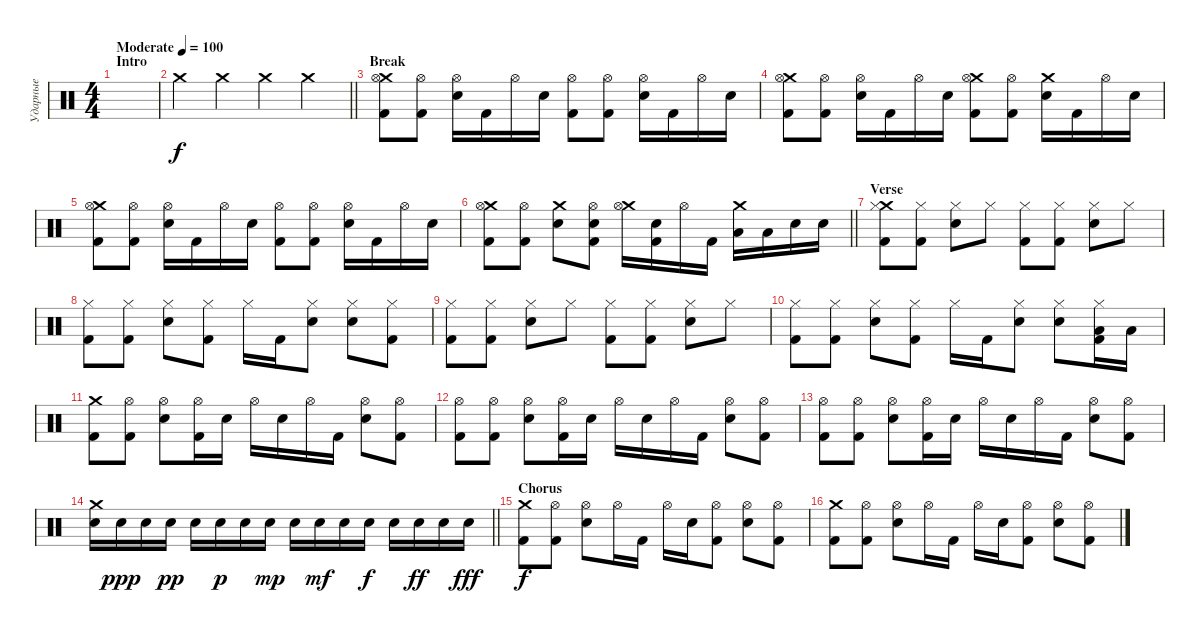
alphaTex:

\track ("Ударные" "Ударные") {instrument percussion}
\staff
\articulation defaults
\ts (4 4)
\section ("" "Intro")
\tempo (100 "Moderate")
\clef neutral
\ks c
|
\barLineRight lightlight "Crash medium (hit)".4 "Crash medium (hit)".4 "Crash medium (hit)".4 "Crash medium (hit)".4
|
\section ("" "Break")
("Crash medium (hit)" "Hi-Hat (open)" "Kick (hit) 2").8 ("Hi-Hat (open)" "Kick (hit) 2").8 ("Hi-Hat (open)" "Electric Snare (hit)").16 "Kick (hit) 2".16 "Hi-Hat (open)".16 "Electric Snare (hit)".16 ("Hi-Hat (open)" "Kick (hit) 2").8 ("Hi-Hat (open)" "Kick (hit) 2").8 ("Hi-Hat (open)" "Electric Snare (hit)").16 "Kick (hit) 2".16 "Hi-Hat (open)".16 "Electric Snare (hit)".16 |
("Crash medium (hit)" "Hi-Hat (open)" "Kick (hit) 2").8 ("Hi-Hat (open)" "Kick (hit) 2").8 ("Hi-Hat (open)" "Electric Snare (hit)").16 "Kick (hit) 2".16 "Hi-Hat (open)".16 "Electric Snare (hit)".16 ("Crash medium (hit)" "Hi-Hat (open)" "Kick (hit) 2").8 ("Hi-Hat (open)" "Kick (hit) 2").8 ("Crash medium (hit)" "Electric Snare (hit)").16 "Kick (hit) 2".16 "Hi-Hat (open)".16 "Electric Snare (hit)".16 |
("Crash medium (hit)" "Hi-Hat (open)" "Kick (hit) 2").8 ("Hi-Hat (open)" "Kick (hit) 2").8 ("Hi-Hat (open)" "Electric Snare (hit)").16 "Kick (hit) 2".16 "Hi-Hat (open)".16 "Electric Snare (hit)".16 ("Hi-Hat (open)" "Kick (hit) 2").8 ("Hi-Hat (open)" "Kick (hit) 2").8 ("Hi-Hat (open)" "Electric Snare (hit)").16 "Kick (hit) 2".16 "Hi-Hat (open)".16 "Electric Snare (hit)".16 |
\barLineRight lightlight
("Crash medium (hit)" "Hi-Hat (open)" "Kick (hit) 2").8 ("Hi-Hat (open)" "Kick (hit) 2").8 ("Crash medium (hit)" "Electric Snare (hit)").8 ("Hi-Hat (open)" "Electric Snare (hit)" "Kick (hit) 2").8 ("Crash medium (hit)" "Hi-Hat (open)").16 ("Electric Snare (hit)" "Kick (hit) 2").16 "Hi-Hat (open)".16 "Kick (hit) 2".16 ("Crash medium (hit)" "Low Tom (hit)").16 "Low Tom (hit)".16 "Electric Snare (hit)".16 "Electric Snare (hit)".16 |
\section ("" "Verse")
("Crash medium (hit)" "Hi-Hat (closed)" "Kick (hit) 2").8 ("Hi-Hat (closed)" "Kick (hit) 2").8 ("Hi-Hat (closed)" "Electric Snare (hit)").8 "Hi-Hat (closed)".8 ("Hi-Hat (closed)" "Kick (hit) 2").8 ("Hi-Hat (closed)" "Kick (hit) 2").8 ("Hi-Hat (closed)" "Electric Snare (hit)").8 "Hi-Hat (closed)".8 |
("Hi-Hat (closed)" "Kick (hit) 2").8 ("Hi-Hat (closed)" "Kick (hit) 2").8 ("Hi-Hat (closed)" "Electric Snare (hit)").8 ("Hi-Hat (closed)" "Kick (hit) 2").8 "Hi-Hat (closed)".16 "Kick (hit) 2".16 ("Hi-Hat (closed)" "Electric Snare (hit)").8 ("Hi-Hat (closed)" "Electric Snare (hit)").8 ("Hi-Hat (closed)" "Kick (hit) 2").8 |
("Hi-Hat (closed)" "Kick (hit) 2").8 ("Hi-Hat (closed)" "Kick (hit) 2").8 ("Hi-Hat (closed)" "Electric Snare (hit)").8 "Hi-Hat (closed)".8 ("Hi-Hat (closed)" "Kick (hit) 2").8 ("Hi-Hat (closed)" "Kick (hit) 2").8 ("Hi-Hat (closed)" "Electric Snare (hit)").8 "Hi-Hat (closed)".8 |
("Hi-Hat (closed)" "Kick (hit) 2").8 ("Hi-Hat (closed)" "Kick (hit) 2").8 ("Hi-Hat (closed)" "Electric Snare (hit)").8 ("Hi-Hat (closed)" "Kick (hit) 2").8 "Hi-Hat (closed)".16 "Kick (hit) 2".16 ("Hi-Hat (closed)" "Electric Snare (hit)").8 ("Hi-Hat (closed)" "Electric Snare (hit)").8 ("Hi-Hat (closed)" "Low Tom (hit)" "Kick (hit) 2").16 "Low Tom (hit)".16 |
("Crash medium (hit)" "Kick (hit) 2").8 ("Hi-Hat (open)" "Kick (hit) 2").8 ("Hi-Hat (open)" "Electric Snare (hit)").8 ("Hi-Hat (open)" "Kick (hit) 2").16 "Electric Snare (hit)".16 "Hi-Hat (open)".16 "Electric Snare (hit)".16 "Hi-Hat (open)".16 "Kick (hit) 2".16 ("Hi-Hat (open)" "Electric Snare (hit)").8 ("Hi-Hat (open)" "Kick (hit) 2").8 |
("Hi-Hat (open)" "Kick (hit) 2").8 ("Hi-Hat (open)" "Kick (hit) 2").8 ("Hi-Hat (open)" "Electric Snare (hit)").8 ("Hi-Hat (open)" "Kick (hit) 2").16 "Electric Snare (hit)".16 "Hi-Hat (open)".16 "Electric Snare (hit)".16 "Hi-Hat (open)".16 "Kick (hit) 2".16 ("Hi-Hat (open)" "Electric Snare (hit)").8 ("Hi-Hat (open)" "Kick (hit) 2").8 |
("Hi-Hat (open)" "Kick (hit) 2").8 ("Hi-Hat (open)" "Kick (hit) 2").8 ("Hi-Hat (open)" "Electric Snare (hit)").8 ("Hi-Hat (open)" "Kick (hit) 2").16 "Electric Snare (hit)".16 "Hi-Hat (open)".16 "Electric Snare (hit)".16 "Hi-Hat (open)".16 "Kick (hit) 2".16 ("Hi-Hat (open)" "Electric Snare (hit)").8 ("Hi-Hat (open)" "Kick (hit) 2").8 |
\barLineRight lightlight
("Crash medium (hit)" "Electric Snare (hit)").16 "Electric Snare (hit)".16{dy ppp} "Electric Snare (hit)".16 "Electric Snare (hit)".16{dy pp} "Electric Snare (hit)".16 "Electric Snare (hit)".16{dy p} "Electric Snare (hit)".16 "Electric Snare (hit)".16{dy mp} "Electric Snare (hit)".16 "Electric Snare (hit)".16{dy mf} "Electric Snare (hit)".16 "Electric Snare (hit)".16{dy f} "Electric Snare (hit)".16 "Electric Snare (hit)".16{dy ff} "Electric Snare (hit)".16 "Electric Snare (hit)".16{dy fff} |
\section ("" "Chorus")
("Crash medium (hit)" "Kick (hit) 2").8{dy f} ("Hi-Hat (open)" "Kick (hit) 2").8 ("Hi-Hat (open)" "Electric Snare (hit)").8 "Hi-Hat (open)".16 "Kick (hit) 2".16 "Hi-Hat (open)".16 "Electric Snare (hit)".16 ("Hi-Hat (open)" "Kick (hit) 2").8 ("Hi-Hat (open)" "Electric Snare (hit)").8 ("Hi-Hat (open)" "Kick (hit) 2").8 |
("Crash medium (hit)" "Kick (hit) 2").8 ("Hi-Hat (open)" "Kick (hit) 2").8 ("Hi-Hat (open)" "Electric Snare (hit)").8 "Hi-Hat (open)".16 "Kick (hit) 2".16 "Hi-Hat (open)".16 "Electric Snare (hit)".16 ("Hi-Hat (open)" "Kick (hit) 2").8 ("Hi-Hat (open)" "Electric Snare (hit)").8 ("Hi-Hat (open)" "Kick (hit) 2").8
